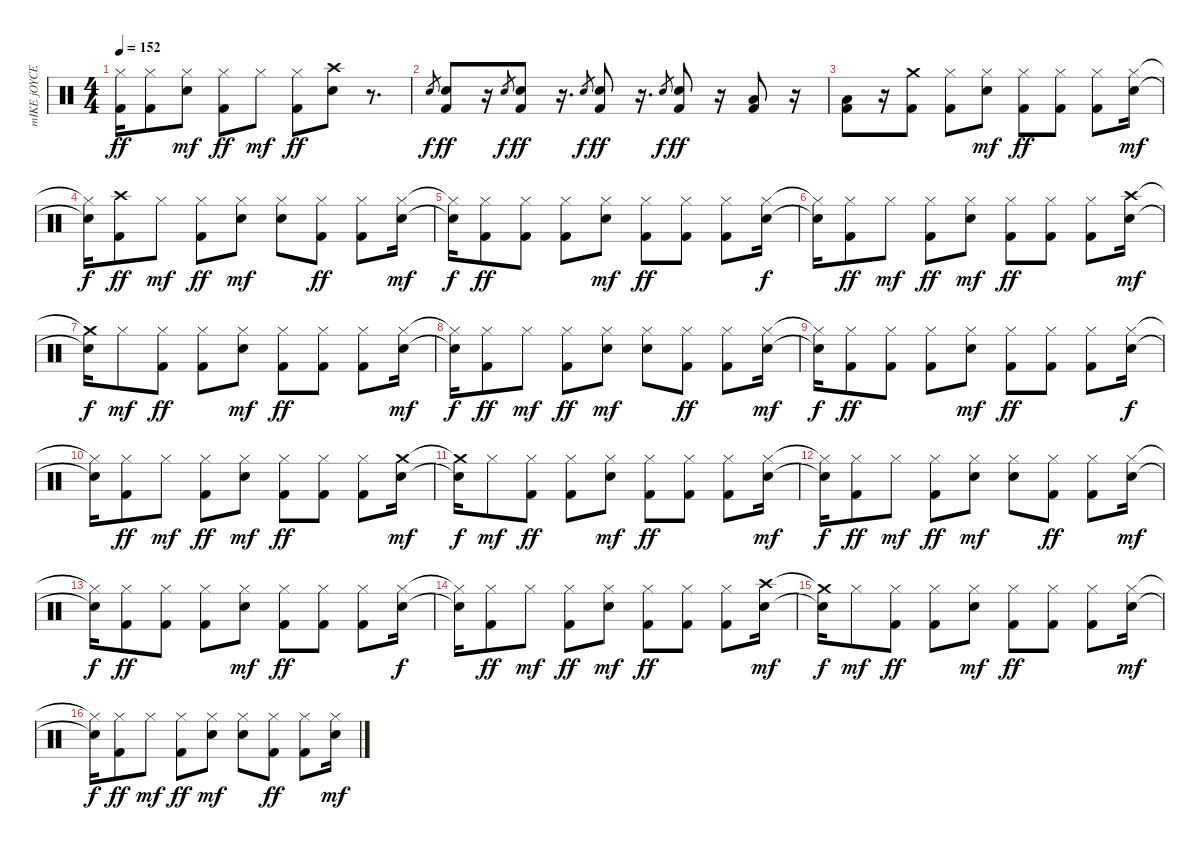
\track ("mIKE jOYCE" "mIKE jOYCE") {instrument percussion}
\staff {score}
\articulation defaults
\ts (4 4)
\tempo 152
\clef neutral
\ks c
("Hi-Hat (closed)"{t} "Kick (hit) 2"{t}).16{dy ff} ("Hi-Hat (closed)" "Kick (hit) 2").8 ("Hi-Hat (closed)" "Electric Snare (hit)").8{dy mf} ("Hi-Hat (closed)" "Kick (hit) 2").8{dy ff} "Hi-Hat (closed)".8{dy mf} ("Hi-Hat (closed)" "Kick (hit) 2").8{dy ff} ("Crash high (hit)" "Electric Snare (hit)").8 r.8{d} |
"Electric Snare (hit)".8{gr dy f} ("Electric Snare (hit)" "Kick (hit) 2").8{dy ff} r.16 "Electric Snare (hit)".8{gr dy f} ("Electric Snare (hit)" "Kick (hit) 2").8{dy ff} r.16{d} "Electric Snare (hit)".8{gr dy f} ("Electric Snare (hit)" "Kick (hit) 2").8{dy ff} r.16{d} "Electric Snare (hit)".8{gr dy f} ("Electric Snare (hit)" "Kick (hit) 2").8{dy ff} r.16 ("Kick (hit) 2" "Low Floor Tom (hit)").8 r.16 |
("Kick (hit) 2" "Low Floor Tom (hit)").8 r.16 ("Crash medium (hit)" "Kick (hit) 2").8 ("Hi-Hat (closed)" "Kick (hit) 2").8 ("Hi-Hat (closed)" "Electric Snare (hit)").8{dy mf} ("Hi-Hat (closed)" "Kick (hit) 2").8{dy ff} ("Hi-Hat (closed)" "Kick (hit) 2").8 ("Hi-Hat (closed)" "Kick (hit) 2").8 ("Hi-Hat (closed)" "Electric Snare (hit)").16{dy mf} |
("Hi-Hat (closed)"{t} "Electric Snare (hit)"{t}).16{dy f} ("Crash high (hit)" "Kick (hit) 2").8{dy ff} "Hi-Hat (closed)".8{dy mf} ("Hi-Hat (closed)" "Kick (hit) 2").8{dy ff} ("Hi-Hat (closed)" "Electric Snare (hit)").8{dy mf} ("Hi-Hat (closed)" "Electric Snare (hit)").8 ("Hi-Hat (closed)" "Kick (hit) 2").8{dy ff} ("Hi-Hat (closed)" "Kick (hit) 2").8 ("Hi-Hat (closed)" "Electric Snare (hit)").16{dy mf} |
("Hi-Hat (closed)"{t} "Electric Snare (hit)"{t}).16{dy f} ("Hi-Hat (closed)" "Kick (hit) 2").8{dy ff} ("Hi-Hat (closed)" "Kick (hit) 2").8 ("Hi-Hat (closed)" "Kick (hit) 2").8 ("Hi-Hat (closed)" "Electric Snare (hit)").8{dy mf} ("Hi-Hat (closed)" "Kick (hit) 2").8{dy ff} ("Hi-Hat (closed)" "Kick (hit) 2").8 ("Hi-Hat (closed)" "Kick (hit) 2").8 ("Hi-Hat (closed)" "Electric Snare (hit)").16{dy f} |
("Hi-Hat (closed)"{t} "Electric Snare (hit)"{t}).16 ("Hi-Hat (closed)" "Kick (hit) 2").8{dy ff} "Hi-Hat (closed)".8{dy mf} ("Hi-Hat (closed)" "Kick (hit) 2").8{dy ff} ("Hi-Hat (closed)" "Electric Snare (hit)").8{dy mf} ("Hi-Hat (closed)" "Kick (hit) 2").8{dy ff} ("Hi-Hat (closed)" "Kick (hit) 2").8 ("Hi-Hat (closed)" "Kick (hit) 2").8 ("Electric Snare (hit)" "Crash high (hit)").16{dy mf} |
("Electric Snare (hit)"{t} "Crash medium (hit)"{t}).16{dy f} "Hi-Hat (closed)".8{dy mf} ("Hi-Hat (closed)" "Kick (hit) 2").8{dy ff} ("Hi-Hat (closed)" "Kick (hit) 2").8 ("Hi-Hat (closed)" "Electric Snare (hit)").8{dy mf} ("Hi-Hat (closed)" "Kick (hit) 2").8{dy ff} ("Hi-Hat (closed)" "Kick (hit) 2").8 ("Hi-Hat (closed)" "Kick (hit) 2").8 ("Hi-Hat (closed)" "Electric Snare (hit)").16{dy mf} |
("Hi-Hat (closed)"{t} "Electric Snare (hit)"{t}).16{dy f} ("Hi-Hat (closed)" "Kick (hit) 2").8{dy ff} "Hi-Hat (closed)".8{dy mf} ("Hi-Hat (closed)" "Kick (hit) 2").8{dy ff} ("Hi-Hat (closed)" "Electric Snare (hit)").8{dy mf} ("Hi-Hat (closed)" "Electric Snare (hit)").8 ("Hi-Hat (closed)" "Kick (hit) 2").8{dy ff} ("Hi-Hat (closed)" "Kick (hit) 2").8 ("Hi-Hat (closed)" "Electric Snare (hit)").16{dy mf} |
("Hi-Hat (closed)"{t} "Electric Snare (hit)"{t}).16{dy f} ("Hi-Hat (closed)" "Kick (hit) 2").8{dy ff} ("Hi-Hat (closed)" "Kick (hit) 2").8 ("Hi-Hat (closed)" "Kick (hit) 2").8 ("Hi-Hat (closed)" "Electric Snare (hit)").8{dy mf} ("Hi-Hat (closed)" "Kick (hit) 2").8{dy ff} ("Hi-Hat (closed)" "Kick (hit) 2").8 ("Hi-Hat (closed)" "Kick (hit) 2").8 ("Hi-Hat (closed)" "Electric Snare (hit)").16{dy f} |
("Hi-Hat (closed)"{t} "Electric Snare (hit)"{t}).16 ("Hi-Hat (closed)" "Kick (hit) 2").8{dy ff} "Hi-Hat (closed)".8{dy mf} ("Hi-Hat (closed)" "Kick (hit) 2").8{dy ff} ("Hi-Hat (closed)" "Electric Snare (hit)").8{dy mf} ("Hi-Hat (closed)" "Kick (hit) 2").8{dy ff} ("Hi-Hat (closed)" "Kick (hit) 2").8 ("Hi-Hat (closed)" "Kick (hit) 2").8 ("Electric Snare (hit)" "Crash medium (hit)").16{dy mf} |
("Electric Snare (hit)"{t} "Crash medium (hit)"{t}).16{dy f} "Hi-Hat (closed)".8{dy mf} ("Hi-Hat (closed)" "Kick (hit) 2").8{dy ff} ("Hi-Hat (closed)" "Kick (hit) 2").8 ("Hi-Hat (closed)" "Electric Snare (hit)").8{dy mf} ("Hi-Hat (closed)" "Kick (hit) 2").8{dy ff} ("Hi-Hat (closed)" "Kick (hit) 2").8 ("Hi-Hat (closed)" "Kick (hit) 2").8 ("Hi-Hat (closed)" "Electric Snare (hit)").16{dy mf} |
("Hi-Hat (closed)"{t} "Electric Snare (hit)"{t}).16{dy f} ("Hi-Hat (closed)" "Kick (hit) 2").8{dy ff} "Hi-Hat (closed)".8{dy mf} ("Hi-Hat (closed)" "Kick (hit) 2").8{dy ff} ("Hi-Hat (closed)" "Electric Snare (hit)").8{dy mf} ("Hi-Hat (closed)" "Electric Snare (hit)").8 ("Hi-Hat (closed)" "Kick (hit) 2").8{dy ff} ("Hi-Hat (closed)" "Kick (hit) 2").8 ("Hi-Hat (closed)" "Electric Snare (hit)").16{dy mf} |
("Hi-Hat (closed)"{t} "Electric Snare (hit)"{t}).16{dy f} ("Hi-Hat (closed)" "Kick (hit) 2").8{dy ff} ("Hi-Hat (closed)" "Kick (hit) 2").8 ("Hi-Hat (closed)" "Kick (hit) 2").8 ("Hi-Hat (closed)" "Electric Snare (hit)").8{dy mf} ("Hi-Hat (closed)" "Kick (hit) 2").8{dy ff} ("Hi-Hat (closed)" "Kick (hit) 2").8 ("Hi-Hat (closed)" "Kick (hit) 2").8 ("Hi-Hat (closed)" "Electric Snare (hit)").16{dy f} |
("Hi-Hat (closed)"{t} "Electric Snare (hit)"{t}).16 ("Hi-Hat (closed)" "Kick (hit) 2").8{dy ff} "Hi-Hat (closed)".8{dy mf} ("Hi-Hat (closed)" "Kick (hit) 2").8{dy ff} ("Hi-Hat (closed)" "Electric Snare (hit)").8{dy mf} ("Hi-Hat (closed)" "Kick (hit) 2").8{dy ff} ("Hi-Hat (closed)" "Kick (hit) 2").8 ("Hi-Hat (closed)" "Kick (hit) 2").8 ("Electric Snare (hit)" "Crash high (hit)").16{dy mf} |
("Electric Snare (hit)"{t} "Crash medium (hit)"{t}).16{dy f} "Hi-Hat (closed)".8{dy mf} ("Hi-Hat (closed)" "Kick (hit) 2").8{dy ff} ("Hi-Hat (closed)" "Kick (hit) 2").8 ("Hi-Hat (closed)" "Electric Snare (hit)").8{dy mf} ("Hi-Hat (closed)" "Kick (hit) 2").8{dy ff} ("Hi-Hat (closed)" "Kick (hit) 2").8 ("Hi-Hat (closed)" "Kick (hit) 2").8 ("Hi-Hat (closed)" "Electric Snare (hit)").16{dy mf} |
("Hi-Hat (closed)"{t} "Electric Snare (hit)"{t}).16{dy f} ("Hi-Hat (closed)" "Kick (hit) 2").8{dy ff} "Hi-Hat (closed)".8{dy mf} ("Hi-Hat (closed)" "Kick (hit) 2").8{dy ff} ("Hi-Hat (closed)" "Electric Snare (hit)").8{dy mf} ("Hi-Hat (closed)" "Electric Snare (hit)").8 ("Hi-Hat (closed)" "Kick (hit) 2").8{dy ff} ("Hi-Hat (closed)" "Kick (hit) 2").8 ("Hi-Hat (closed)" "Electric Snare (hit)").16{dy mf}
